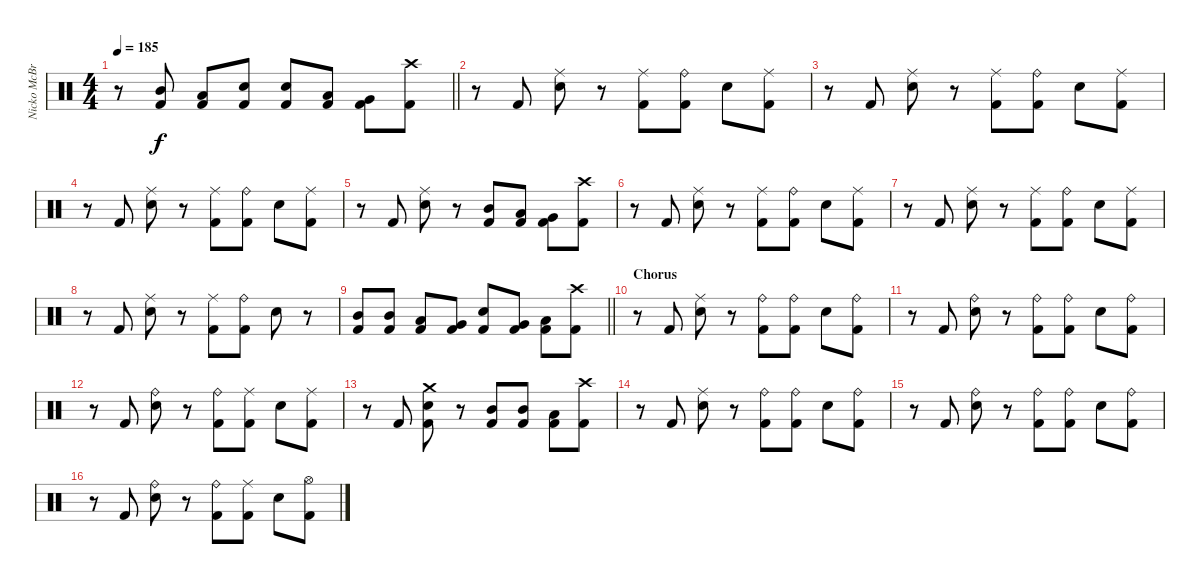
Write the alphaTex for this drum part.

\track ("Nicko McBrain" "Nicko McBr") {instrument percussion}
\staff {score}
\articulation defaults
\ts (4 4)
\tempo 185
\clef neutral
\barLineRight lightlight
\ks c
r.8{dy f} ("Mid Tom (hit)" "Kick (hit) 2").8 ("Low Tom (hit)" "Kick (hit) 2").8 ("Snare (hit) 2" "Kick (hit) 2").8 ("Snare (hit) 2" "Kick (hit) 2").8 ("Low Tom (hit)" "Kick (hit) 2").8 ("Very Low Tom (hit)" "Kick (hit) 2").8 ("Crash high (hit)" "Kick (hit) 2").8 |
r.8 "Kick (hit) 2".8 ("Ride (middle)" "Snare (hit) 2").8 r.8 ("Ride (middle)" "Kick (hit) 2").8 ("Ride (bell)" "Kick (hit) 2").8 "Snare (hit) 2".8 ("Ride (middle)" "Kick (hit) 2").8 |
r.8 "Kick (hit) 2".8 ("Ride (middle)" "Snare (hit) 2").8 r.8 ("Ride (middle)" "Kick (hit) 2").8 ("Ride (bell)" "Kick (hit) 2").8 "Snare (hit) 2".8 ("Ride (middle)" "Kick (hit) 2").8 |
r.8 "Kick (hit) 2".8 ("Ride (middle)" "Snare (hit) 2").8 r.8 ("Ride (middle)" "Kick (hit) 2").8 ("Ride (bell)" "Kick (hit) 2").8 "Snare (hit) 2".8 ("Ride (middle)" "Kick (hit) 2").8 |
r.8 "Kick (hit) 2".8 ("Ride (middle)" "Snare (hit) 2").8 r.8 ("Mid Tom (hit)" "Kick (hit) 2").8 ("Low Tom (hit)" "Kick (hit) 2").8 ("Very Low Tom (hit)" "Kick (hit) 2").8 ("Crash high (hit)" "Kick (hit) 2").8 |
r.8 "Kick (hit) 2".8 ("Ride (middle)" "Snare (hit) 2").8 r.8 ("Ride (middle)" "Kick (hit) 2").8 ("Ride (bell)" "Kick (hit) 2").8 "Snare (hit) 2".8 ("Ride (middle)" "Kick (hit) 2").8 |
r.8 "Kick (hit) 2".8 ("Ride (middle)" "Snare (hit) 2").8 r.8 ("Ride (middle)" "Kick (hit) 2").8 ("Ride (bell)" "Kick (hit) 2").8 "Snare (hit) 2".8 ("Ride (middle)" "Kick (hit) 2").8 |
r.8 "Kick (hit) 2".8 ("Ride (middle)" "Snare (hit) 2").8 r.8 ("Ride (middle)" "Kick (hit) 2").8 ("Ride (bell)" "Kick (hit) 2").8 "Snare (hit) 2".8 r.8 |
\barLineRight lightlight
("Mid Tom (hit)" "Kick (hit) 2").8 ("Mid Tom (hit)" "Kick (hit) 2").8 ("Low Tom (hit)" "Kick (hit) 2").8 ("Very Low Tom (hit)" "Kick (hit) 2").8 ("Snare (hit) 2" "Kick (hit) 2").8 ("Very Low Tom (hit)" "Kick (hit) 2").8 ("Low Floor Tom (hit)" "Kick (hit) 2").8 ("Crash high (hit)" "Kick (hit) 2").8 |
\section ("" "Chorus")
r.8 "Kick (hit) 2".8 ("Ride (middle)" "Snare (hit) 2").8 r.8 ("Ride (bell)" "Kick (hit) 2").8 ("Ride (bell)" "Kick (hit) 2").8 "Snare (hit) 2".8 ("Ride (bell)" "Kick (hit) 2").8 |
r.8 "Kick (hit) 2".8 ("Ride (bell)" "Snare (hit) 2").8 r.8 ("Ride (bell)" "Kick (hit) 2").8 ("Ride (bell)" "Kick (hit) 2").8 "Snare (hit) 2".8 ("Ride (bell)" "Kick (hit) 2").8 |
r.8 "Kick (hit) 2".8 ("Ride (bell)" "Snare (hit) 2").8 r.8 ("Ride (bell)" "Kick (hit) 2").8 ("Ride (middle)" "Kick (hit) 2").8 "Snare (hit) 2".8 ("Ride (middle)" "Kick (hit) 2").8 |
r.8 "Kick (hit) 2".8 ("Crash medium (hit)" "Snare (hit) 2" "Kick (hit) 2").8 r.8 ("Mid Tom (hit)" "Kick (hit) 2").8 ("Mid Tom (hit)" "Kick (hit) 2").8 ("Low Tom (hit)" "Kick (hit) 2").8 ("Crash high (hit)" "Kick (hit) 2").8 |
r.8 "Kick (hit) 2".8 ("Ride (middle)" "Snare (hit) 2").8 r.8 ("Ride (bell)" "Kick (hit) 2").8 ("Ride (bell)" "Kick (hit) 2").8 "Snare (hit) 2".8 ("Ride (bell)" "Kick (hit) 2").8 |
r.8 "Kick (hit) 2".8 ("Ride (bell)" "Snare (hit) 2").8 r.8 ("Ride (bell)" "Kick (hit) 2").8 ("Ride (bell)" "Kick (hit) 2").8 "Snare (hit) 2".8 ("Ride (bell)" "Kick (hit) 2").8 |
r.8 "Kick (hit) 2".8 ("Ride (bell)" "Snare (hit) 2").8 r.8 ("Ride (bell)" "Kick (hit) 2").8 ("Ride (middle)" "Kick (hit) 2").8 "Snare (hit) 2".8 ("Hi-Hat (open)" "Kick (hit) 2").8
